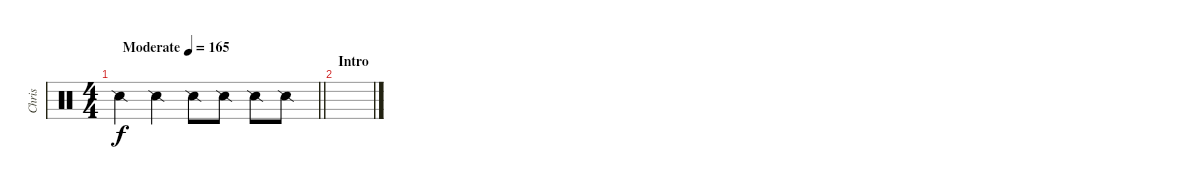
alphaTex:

\track ("Chris" "Chris") {instrument percussion}
\staff {score}
\articulation defaults
\ts (4 4)
\tempo (165 "Moderate")
\clef neutral
\barLineRight lightlight
\ks c "Snare (side stick) 2".4{dy f} "Snare (side stick) 2".4 "Snare (side stick) 2".8 "Snare (side stick) 2".8 "Snare (side stick) 2".8 "Snare (side stick) 2".8
|
\section ("" "Intro")
